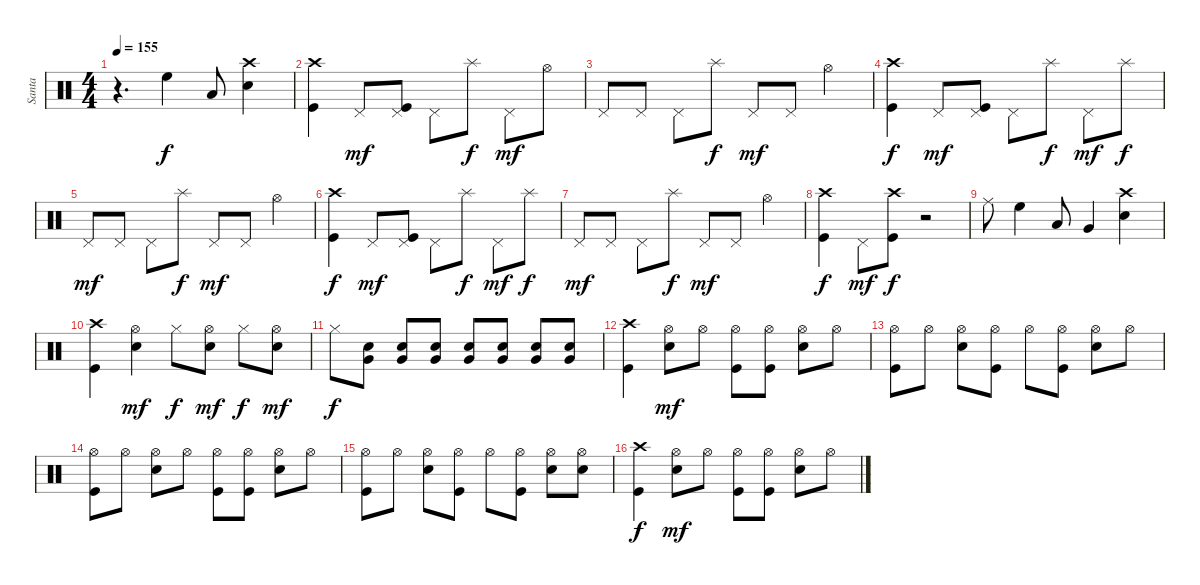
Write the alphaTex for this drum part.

\track ("Santa" "Santa") {instrument percussion}
\staff {score}
\articulation defaults
\ts (4 4)
\tempo 155
\clef neutral
\ks c
r.4{d dy f} "High Floor Tom (hit)".4 "Low Tom (hit)".8 ("Snare (hit) 2" "Crash high (hit)").4 |
("Kick (hit)" "Crash high (hit)").4 "Pedal Hi-Hat (hit)".8{dy mf} ("Kick (hit)" "Pedal Hi-Hat (hit)").8 "Pedal Hi-Hat (hit)".8 "Splash (hit)".8{dy f} "Pedal Hi-Hat (hit)".8{dy mf} "Hi-Hat (open)".8 |
"Pedal Hi-Hat (hit)".8 "Pedal Hi-Hat (hit)".8 "Pedal Hi-Hat (hit)".8 "Splash (hit)".8{dy f} "Pedal Hi-Hat (hit)".8{dy mf} "Pedal Hi-Hat (hit)".8 "Hi-Hat (open)".4 |
("Kick (hit)" "Crash high (hit)").4{dy f} "Pedal Hi-Hat (hit)".8{dy mf} ("Kick (hit)" "Pedal Hi-Hat (hit)").8 "Pedal Hi-Hat (hit)".8 "Splash (hit)".8{dy f} "Pedal Hi-Hat (hit)".8{dy mf} "Splash (hit)".8{dy f} |
"Pedal Hi-Hat (hit)".8{dy mf} "Pedal Hi-Hat (hit)".8 "Pedal Hi-Hat (hit)".8 "Splash (hit)".8{dy f} "Pedal Hi-Hat (hit)".8{dy mf} "Pedal Hi-Hat (hit)".8 "Hi-Hat (open)".4 |
("Kick (hit)" "Crash high (hit)").4{dy f} "Pedal Hi-Hat (hit)".8{dy mf} ("Kick (hit)" "Pedal Hi-Hat (hit)").8 "Pedal Hi-Hat (hit)".8 "Splash (hit)".8{dy f} "Pedal Hi-Hat (hit)".8{dy mf} "Splash (hit)".8{dy f} |
"Pedal Hi-Hat (hit)".8{dy mf} "Pedal Hi-Hat (hit)".8 "Pedal Hi-Hat (hit)".8 "Splash (hit)".8{dy f} "Pedal Hi-Hat (hit)".8{dy mf} "Pedal Hi-Hat (hit)".8 "Hi-Hat (open)".4 |
("Kick (hit)" "Crash high (hit)").4{dy f} "Pedal Hi-Hat (hit)".8{dy mf} ("Kick (hit)" "Crash high (hit)").8{dy f} r.2 |
"Ride (middle)".8 "High Floor Tom (hit)".4 "Low Tom (hit)".8 "Very Low Tom (hit)".4 ("Snare (hit) 2" "Crash high (hit)").4 |
("Kick (hit)" "Crash high (hit)").4 ("Hi-Hat (open)" "Snare (hit) 2").4{dy mf} "Hi-Hat (closed)".8{dy f} ("Snare (hit) 2" "Hi-Hat (open)").8{dy mf} "Hi-Hat (closed)".8{dy f} ("Snare (hit) 2" "Hi-Hat (open)").8{dy mf} |
"Hi-Hat (closed)".8{dy f} ("Snare (hit) 2" "Very Low Tom (hit)").8 ("Snare (hit) 2" "Very Low Tom (hit)").8 ("Snare (hit) 2" "Very Low Tom (hit)").8 ("Snare (hit) 2" "Very Low Tom (hit)").8 ("Snare (hit) 2" "Very Low Tom (hit)").8 ("Snare (hit) 2" "Very Low Tom (hit)").8 ("Snare (hit) 2" "Very Low Tom (hit)").8 |
("Kick (hit)" "Crash high (hit)").4 ("Snare (hit) 2" "Hi-Hat (open)").8{dy mf} "Hi-Hat (open)".8 ("Kick (hit)" "Hi-Hat (open)").8 ("Kick (hit)" "Hi-Hat (open)").8 ("Snare (hit) 2" "Hi-Hat (open)").8 "Hi-Hat (open)".8 |
("Kick (hit)" "Hi-Hat (open)").8 "Hi-Hat (open)".8 ("Snare (hit) 2" "Hi-Hat (open)").8 ("Kick (hit)" "Hi-Hat (open)").8 "Hi-Hat (open)".8 ("Kick (hit)" "Hi-Hat (open)").8 ("Snare (hit) 2" "Hi-Hat (open)").8 "Hi-Hat (open)".8 |
("Kick (hit)" "Hi-Hat (open)").8 "Hi-Hat (open)".8 ("Snare (hit) 2" "Hi-Hat (open)").8 "Hi-Hat (open)".8 ("Kick (hit)" "Hi-Hat (open)").8 ("Kick (hit)" "Hi-Hat (open)").8 ("Snare (hit) 2" "Hi-Hat (open)").8 "Hi-Hat (open)".8 |
("Kick (hit)" "Hi-Hat (open)").8 "Hi-Hat (open)".8 ("Snare (hit) 2" "Hi-Hat (open)").8 ("Kick (hit)" "Hi-Hat (open)").8 "Hi-Hat (open)".8 ("Kick (hit)" "Hi-Hat (open)").8 ("Snare (hit) 2" "Hi-Hat (open)").8 ("Snare (hit) 2" "Hi-Hat (open)").8 |
("Kick (hit)" "Crash high (hit)").4{dy f} ("Snare (hit) 2" "Hi-Hat (open)").8{dy mf} "Hi-Hat (open)".8 ("Kick (hit)" "Hi-Hat (open)").8 ("Kick (hit)" "Hi-Hat (open)").8 ("Snare (hit) 2" "Hi-Hat (open)").8 "Hi-Hat (open)".8
